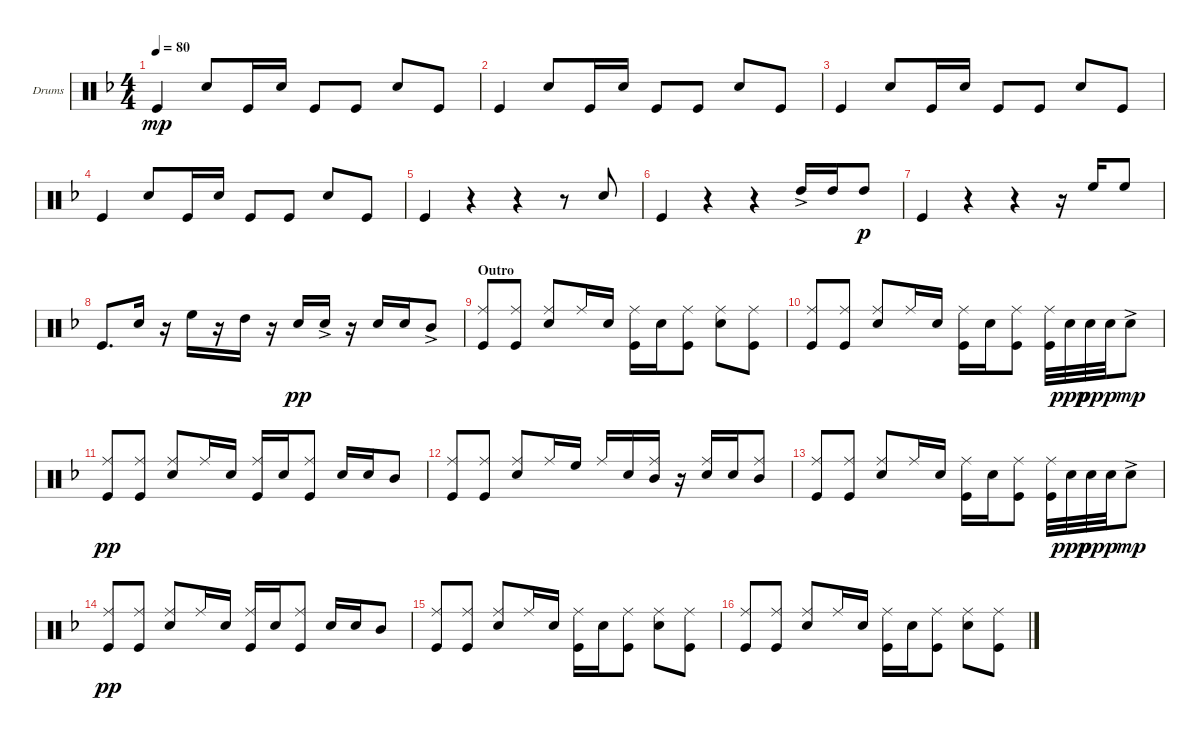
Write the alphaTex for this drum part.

\defaultSystemsLayout 4
\bracketExtendMode groupsimilarinstruments
\firstSystemTrackNameOrientation horizontal
\otherSystemsTrackNameOrientation horizontal
\track ("Drumkit" "Drums") {instrument percussion}
\staff {score}
\articulation defaults
\ts (4 4)
\tempo 80
\clef neutral
\ks f "Kick (hit)".4{dy mp} "Snare (hit) 2".8 "Kick (hit)".16 "Snare (hit) 2".16 "Kick (hit)".8 "Kick (hit)".8 "Snare (hit) 2".8 "Kick (hit)".8
|
"Kick (hit)".4 "Snare (hit) 2".8 "Kick (hit)".16 "Snare (hit) 2".16 "Kick (hit)".8 "Kick (hit)".8 "Snare (hit) 2".8 "Kick (hit)".8 |
"Kick (hit)".4 "Snare (hit) 2".8 "Kick (hit)".16 "Snare (hit) 2".16 "Kick (hit)".8 "Kick (hit)".8 "Snare (hit) 2".8 "Kick (hit)".8 |
"Kick (hit)".4 "Snare (hit) 2".8 "Kick (hit)".16 "Snare (hit) 2".16 "Kick (hit)".8 "Kick (hit)".8 "Snare (hit) 2".8 "Kick (hit)".8 |
"Kick (hit)".4 r.4 r.4 r.8 "Snare (hit) 2".8{beam invert} |
"Kick (hit)".4 r.4 r.4 "High Tom (hit)"{ac}.16{beam invert} "High Tom (hit)".16 "High Tom (hit)".8{dy p} |
"Kick (hit)".4 r.4 r.4 r.16 "High Floor Tom (hit)".16{beam invert} "High Floor Tom (hit)".8 |
"Kick (hit)".8{d} "Snare (hit) 2".16 r.16 "High Floor Tom (hit)".16 r.16 "High Tom (hit)".16 r.16 "Snare (hit) 2".16{dy pp beam invert} "Snare (hit) 2"{ac}.16 r.16 "Snare (hit) 2".16{beam invert} "Snare (hit) 2".16 "Mid Tom (hit)"{ac}.8 |
\section ("" "Outro")
("Kick (hit)" "Ride (middle)").8 ("Kick (hit)" "Ride (middle)").8 ("Snare (hit) 2" "Ride (middle)").8{beam invert} "Ride (middle)".16 "Snare (hit) 2".16 ("Kick (hit)" "Ride (middle)").16 "Snare (hit) 2".16 ("Kick (hit)" "Ride (middle)").8 ("Snare (hit) 2" "Ride (middle)").8 ("Kick (hit)" "Ride (middle)").8 |
("Kick (hit)" "Ride (middle)").8 ("Kick (hit)" "Ride (middle)").8 ("Snare (hit) 2" "Ride (middle)").8{beam invert} "Ride (middle)".16 "Snare (hit) 2".16 ("Kick (hit)" "Ride (middle)").16 "Snare (hit) 2".16 ("Kick (hit)" "Ride (middle)").8 ("Kick (hit)" "Ride (middle)").32 "Snare (hit) 2".32{dy ppp} "Snare (hit) 2".32{dy pp} "Snare (hit) 2".32{dy p} "Snare (hit) 2"{ac}.8{dy mp} |
("Kick (hit)" "Ride (middle)").8{dy pp} ("Kick (hit)" "Ride (middle)").8 ("Snare (hit) 2" "Ride (middle)").8{beam invert} "Ride (middle)".16 "Snare (hit) 2".16 ("Kick (hit)" "Ride (middle)").16 "Snare (hit) 2".16 ("Kick (hit)" "Ride (middle)").8 "Snare (hit) 2".16{beam invert} "Snare (hit) 2".16 "Mid Tom (hit)".8 |
("Kick (hit)" "Ride (middle)").8 ("Kick (hit)" "Ride (middle)").8 ("Snare (hit) 2" "Ride (middle)").8{beam invert} "Ride (middle)".16 "High Floor Tom (hit)".16 "Ride (middle)".16 "Snare (hit) 2".16{beam invert} ("Mid Tom (hit)" "Ride (middle)").16 r.16 ("Snare (hit) 2" "Ride (middle)").16{beam invert} "Snare (hit) 2".16 ("Mid Tom (hit)" "Ride (middle)").8 |
("Kick (hit)" "Ride (middle)").8 ("Kick (hit)" "Ride (middle)").8 ("Snare (hit) 2" "Ride (middle)").8{beam invert} "Ride (middle)".16 "Snare (hit) 2".16 ("Kick (hit)" "Ride (middle)").16 "Snare (hit) 2".16 ("Kick (hit)" "Ride (middle)").8 ("Kick (hit)" "Ride (middle)").32 "Snare (hit) 2".32{dy ppp} "Snare (hit) 2".32{dy pp} "Snare (hit) 2".32{dy p} "Snare (hit) 2"{ac}.8{dy mp} |
("Kick (hit)" "Ride (middle)").8{dy pp} ("Kick (hit)" "Ride (middle)").8 ("Snare (hit) 2" "Ride (middle)").8{beam invert} "Ride (middle)".16 "Snare (hit) 2".16 ("Kick (hit)" "Ride (middle)").16 "Snare (hit) 2".16 ("Kick (hit)" "Ride (middle)").8 "Snare (hit) 2".16{beam invert} "Snare (hit) 2".16 "Mid Tom (hit)".8 |
("Kick (hit)" "Ride (middle)").8 ("Kick (hit)" "Ride (middle)").8 ("Snare (hit) 2" "Ride (middle)").8{beam invert} "Ride (middle)".16 "Snare (hit) 2".16 ("Kick (hit)" "Ride (middle)").16 "Snare (hit) 2".16 ("Kick (hit)" "Ride (middle)").8 ("Snare (hit) 2" "Ride (middle)").8 ("Kick (hit)" "Ride (middle)").8 |
("Kick (hit)" "Ride (middle)").8 ("Kick (hit)" "Ride (middle)").8 ("Snare (hit) 2" "Ride (middle)").8{beam invert} "Ride (middle)".16 "Snare (hit) 2".16 ("Kick (hit)" "Ride (middle)").16 "Snare (hit) 2".16 ("Kick (hit)" "Ride (middle)").8 ("Snare (hit) 2" "Ride (middle)").8 ("Kick (hit)" "Ride (middle)").8
